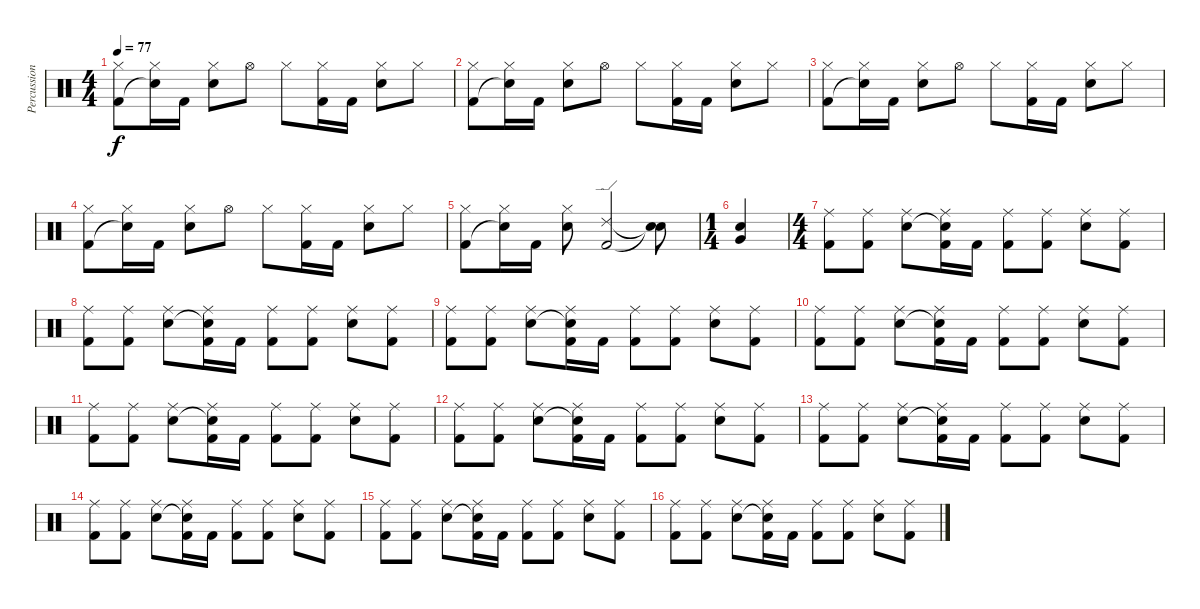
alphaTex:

\track ("Percussion" "Percussion") {instrument percussion}
\staff {score}
\articulation defaults
\ts (4 4)
\tempo 77
\clef neutral
\ks c
("Hi-Hat (closed)" "Kick (hit) 2").8{dy f} ("Hi-Hat (closed)" "Snare (hit)"{t}).16 "Kick (hit) 2".16 ("Hi-Hat (closed)" "Electric Snare (hit)").8 "Hi-Hat (open)".8 "Hi-Hat (closed)".8 ("Hi-Hat (closed)" "Kick (hit) 2").16 "Kick (hit) 2".16 ("Hi-Hat (closed)" "Electric Snare (hit)").8 "Hi-Hat (closed)".8 |
("Hi-Hat (closed)" "Kick (hit) 2").8 ("Hi-Hat (closed)" "Snare (hit)"{t}).16 "Kick (hit) 2".16 ("Hi-Hat (closed)" "Electric Snare (hit)").8 "Hi-Hat (open)".8 "Hi-Hat (closed)".8 ("Hi-Hat (closed)" "Kick (hit) 2").16 "Kick (hit) 2".16 ("Hi-Hat (closed)" "Electric Snare (hit)").8 "Hi-Hat (closed)".8 |
("Hi-Hat (closed)" "Kick (hit) 2").8 ("Hi-Hat (closed)" "Snare (hit)"{t}).16 "Kick (hit) 2".16 ("Hi-Hat (closed)" "Electric Snare (hit)").8 "Hi-Hat (open)".8 "Hi-Hat (closed)".8 ("Hi-Hat (closed)" "Kick (hit) 2").16 "Kick (hit) 2".16 ("Hi-Hat (closed)" "Electric Snare (hit)").8 "Hi-Hat (closed)".8 |
("Hi-Hat (closed)" "Kick (hit) 2").8 ("Hi-Hat (closed)" "Snare (hit)"{t}).16 "Kick (hit) 2".16 ("Hi-Hat (closed)" "Electric Snare (hit)").8 "Hi-Hat (open)".8 "Hi-Hat (closed)".8 ("Hi-Hat (closed)" "Kick (hit) 2").16 "Kick (hit) 2".16 ("Hi-Hat (closed)" "Electric Snare (hit)").8 "Hi-Hat (closed)".8 |
("Hi-Hat (closed)" "Kick (hit) 2").8 ("Hi-Hat (closed)" "Snare (hit)"{t}).16 "Kick (hit) 2".16 ("Hi-Hat (closed)" "Electric Snare (hit)").8 ("Ride (edge) 2" "Kick (hit) 2").2 ("Snare (hit)"{t} "Snare (hit)"{t}).8 |
\ts (1 4)
("Very Low Tom (hit)" "Electric Snare (hit)").4 |
\ts (4 4)
("Ride (middle)" "Kick (hit) 2").8 ("Ride (middle)" "Kick (hit) 2").8 ("Ride (middle)" "Electric Snare (hit)").8 ("Ride (middle)" "Snare (hit)"{t} "Kick (hit) 2").16 "Kick (hit) 2".16 ("Ride (middle)" "Kick (hit) 2").8 ("Ride (middle)" "Kick (hit) 2").8 ("Ride (middle)" "Electric Snare (hit)").8 ("Ride (middle)" "Kick (hit) 2").8 |
("Ride (middle)" "Kick (hit) 2").8 ("Ride (middle)" "Kick (hit) 2").8 ("Ride (middle)" "Electric Snare (hit)").8 ("Ride (middle)" "Snare (hit)"{t} "Kick (hit) 2").16 "Kick (hit) 2".16 ("Ride (middle)" "Kick (hit) 2").8 ("Ride (middle)" "Kick (hit) 2").8 ("Ride (middle)" "Electric Snare (hit)").8 ("Ride (middle)" "Kick (hit) 2").8 |
("Ride (middle)" "Kick (hit) 2").8 ("Ride (middle)" "Kick (hit) 2").8 ("Ride (middle)" "Electric Snare (hit)").8 ("Ride (middle)" "Snare (hit)"{t} "Kick (hit) 2").16 "Kick (hit) 2".16 ("Ride (middle)" "Kick (hit) 2").8 ("Ride (middle)" "Kick (hit) 2").8 ("Ride (middle)" "Electric Snare (hit)").8 ("Ride (middle)" "Kick (hit) 2").8 |
("Ride (middle)" "Kick (hit) 2").8 ("Ride (middle)" "Kick (hit) 2").8 ("Ride (middle)" "Electric Snare (hit)").8 ("Ride (middle)" "Snare (hit)"{t} "Kick (hit) 2").16 "Kick (hit) 2".16 ("Ride (middle)" "Kick (hit) 2").8 ("Ride (middle)" "Kick (hit) 2").8 ("Ride (middle)" "Electric Snare (hit)").8 ("Ride (middle)" "Kick (hit) 2").8 |
("Ride (middle)" "Kick (hit) 2").8 ("Ride (middle)" "Kick (hit) 2").8 ("Ride (middle)" "Electric Snare (hit)").8 ("Ride (middle)" "Snare (hit)"{t} "Kick (hit) 2").16 "Kick (hit) 2".16 ("Ride (middle)" "Kick (hit) 2").8 ("Ride (middle)" "Kick (hit) 2").8 ("Ride (middle)" "Electric Snare (hit)").8 ("Ride (middle)" "Kick (hit) 2").8 |
("Ride (middle)" "Kick (hit) 2").8 ("Ride (middle)" "Kick (hit) 2").8 ("Ride (middle)" "Electric Snare (hit)").8 ("Ride (middle)" "Snare (hit)"{t} "Kick (hit) 2").16 "Kick (hit) 2".16 ("Ride (middle)" "Kick (hit) 2").8 ("Ride (middle)" "Kick (hit) 2").8 ("Ride (middle)" "Electric Snare (hit)").8 ("Ride (middle)" "Kick (hit) 2").8 |
("Ride (middle)" "Kick (hit) 2").8 ("Ride (middle)" "Kick (hit) 2").8 ("Ride (middle)" "Electric Snare (hit)").8 ("Ride (middle)" "Snare (hit)"{t} "Kick (hit) 2").16 "Kick (hit) 2".16 ("Ride (middle)" "Kick (hit) 2").8 ("Ride (middle)" "Kick (hit) 2").8 ("Ride (middle)" "Electric Snare (hit)").8 ("Ride (middle)" "Kick (hit) 2").8 |
("Ride (middle)" "Kick (hit) 2").8 ("Ride (middle)" "Kick (hit) 2").8 ("Ride (middle)" "Electric Snare (hit)").8 ("Ride (middle)" "Snare (hit)"{t} "Kick (hit) 2").16 "Kick (hit) 2".16 ("Ride (middle)" "Kick (hit) 2").8 ("Ride (middle)" "Kick (hit) 2").8 ("Ride (middle)" "Electric Snare (hit)").8 ("Ride (middle)" "Kick (hit) 2").8 |
("Ride (middle)" "Kick (hit) 2").8 ("Ride (middle)" "Kick (hit) 2").8 ("Ride (middle)" "Electric Snare (hit)").8 ("Ride (middle)" "Snare (hit)"{t} "Kick (hit) 2").16 "Kick (hit) 2".16 ("Ride (middle)" "Kick (hit) 2").8 ("Ride (middle)" "Kick (hit) 2").8 ("Ride (middle)" "Electric Snare (hit)").8 ("Ride (middle)" "Kick (hit) 2").8 |
("Ride (middle)" "Kick (hit) 2").8 ("Ride (middle)" "Kick (hit) 2").8 ("Ride (middle)" "Electric Snare (hit)").8 ("Ride (middle)" "Snare (hit)"{t} "Kick (hit) 2").16 "Kick (hit) 2".16 ("Ride (middle)" "Kick (hit) 2").8 ("Ride (middle)" "Kick (hit) 2").8 ("Ride (middle)" "Electric Snare (hit)").8 ("Ride (middle)" "Kick (hit) 2").8
